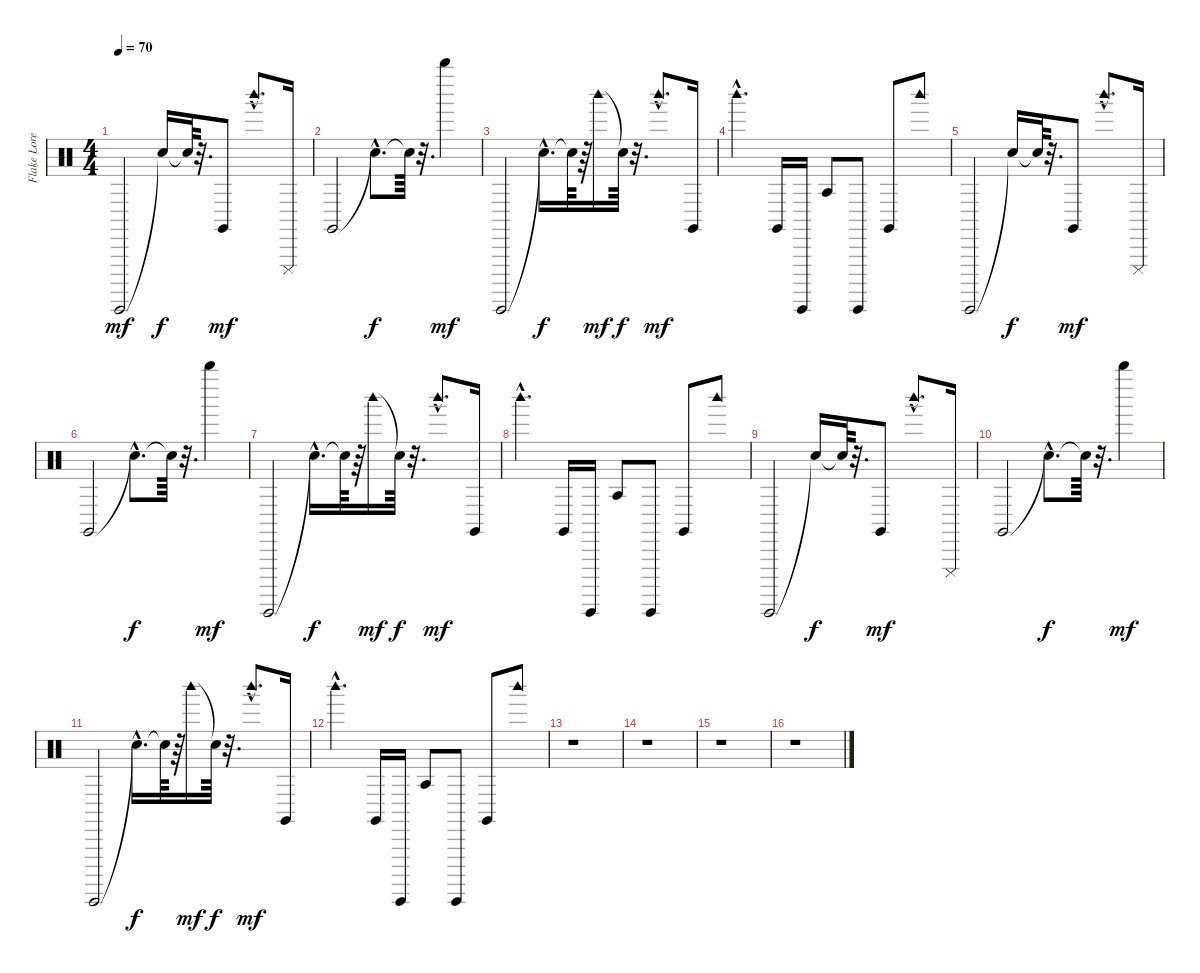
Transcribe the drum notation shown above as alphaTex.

\track ("Flake Lorenz" "Flake Lore") {instrument percussion}
\staff {score}
\articulation defaults
\ts (4 4)
\tempo 70
\clef neutral
\ks c "Guiro (hit)".2{dy mf} "Snare (hit)"{t}.16{dy f} "Snare (hit)"{t}.64
r.32{d} "Claves (hit)".8{dy mf} "Woodblock high (hit)"{hac}.8{d} "Cuica (mute)".16 |
"Claves (hit)".2 "Snare (hit)"{hac t}.8{d dy f} "Snare (hit)"{t}.64 r.32{d} "Whistle high (hit)".4{dy mf} |
"Guiro (hit)".2 "Snare (hit)"{hac t}.16{d dy f} "Snare (hit)"{t}.64 r.64 "Woodblock high (hit)".16{dy mf} "Snare (hit)"{t}.64{dy f} r.32{d} "Woodblock high (hit)"{hac}.8{d dy mf} "Claves (hit)".16 |
"Woodblock high (hit)"{hac}.4{d} "Claves (hit)".16 "Guiro (hit)".16 "Agogo tow (hit)".8 "Guiro (hit)".8 "Claves (hit)".8 "Woodblock high (hit)".8 |
"Guiro (hit)".2 "Snare (hit)"{t}.16{dy f} "Snare (hit)"{t}.64 r.32{d} "Claves (hit)".8{dy mf} "Woodblock high (hit)"{hac}.8{d} "Cuica (mute)".16 |
"Claves (hit)".2 "Snare (hit)"{hac t}.8{d dy f} "Snare (hit)"{t}.64 r.32{d} "Whistle high (hit)".4{dy mf} |
"Guiro (hit)".2 "Snare (hit)"{hac t}.16{d dy f} "Snare (hit)"{t}.64 r.64 "Woodblock high (hit)".16{dy mf} "Snare (hit)"{t}.64{dy f} r.32{d} "Woodblock high (hit)"{hac}.8{d dy mf} "Claves (hit)".16 |
"Woodblock high (hit)"{hac}.4{d} "Claves (hit)".16 "Guiro (hit)".16 "Agogo tow (hit)".8 "Guiro (hit)".8 "Claves (hit)".8 "Woodblock high (hit)".8 |
"Guiro (hit)".2 "Snare (hit)"{t}.16{dy f} "Snare (hit)"{t}.64 r.32{d} "Claves (hit)".8{dy mf} "Woodblock high (hit)"{hac}.8{d} "Cuica (mute)".16 |
"Claves (hit)".2 "Snare (hit)"{hac t}.8{d dy f} "Snare (hit)"{t}.64 r.32{d} "Whistle high (hit)".4{dy mf} |
"Guiro (hit)".2 "Snare (hit)"{hac t}.16{d dy f} "Snare (hit)"{t}.64 r.64 "Woodblock high (hit)".16{dy mf} "Snare (hit)"{t}.64{dy f} r.32{d} "Woodblock high (hit)"{hac}.8{d dy mf} "Claves (hit)".16 |
"Woodblock high (hit)"{hac}.4{d} "Claves (hit)".16 "Guiro (hit)".16 "Agogo tow (hit)".8 "Guiro (hit)".8 "Claves (hit)".8 "Woodblock high (hit)".8 |
r.1 |
r.1 |
r.1 |
r.1
